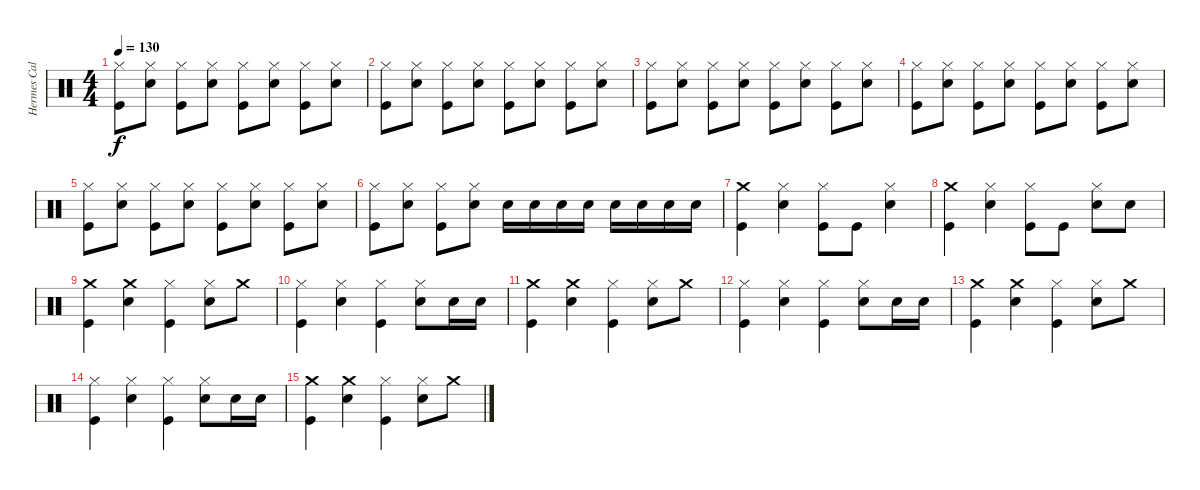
\track ("Hermes Calabria" "Hermes Cal") {instrument percussion}
\staff {score}
\articulation defaults
\ts (4 4)
\tempo 130
\clef neutral
\ks c
("Hi-Hat (closed)" "Kick (hit)").8{dy f} ("Hi-Hat (closed)" "Snare (hit) 2").8 ("Hi-Hat (closed)" "Kick (hit)").8 ("Hi-Hat (closed)" "Snare (hit) 2").8 ("Hi-Hat (closed)" "Kick (hit)").8 ("Hi-Hat (closed)" "Snare (hit) 2").8 ("Hi-Hat (closed)" "Kick (hit)").8 ("Hi-Hat (closed)" "Snare (hit) 2").8 |
("Hi-Hat (closed)" "Kick (hit)").8 ("Hi-Hat (closed)" "Snare (hit) 2").8 ("Hi-Hat (closed)" "Kick (hit)").8 ("Hi-Hat (closed)" "Snare (hit) 2").8 ("Hi-Hat (closed)" "Kick (hit)").8 ("Hi-Hat (closed)" "Snare (hit) 2").8 ("Hi-Hat (closed)" "Kick (hit)").8 ("Hi-Hat (closed)" "Snare (hit) 2").8 |
("Hi-Hat (closed)" "Kick (hit)").8 ("Hi-Hat (closed)" "Snare (hit) 2").8 ("Hi-Hat (closed)" "Kick (hit)").8 ("Hi-Hat (closed)" "Snare (hit) 2").8 ("Hi-Hat (closed)" "Kick (hit)").8 ("Hi-Hat (closed)" "Snare (hit) 2").8 ("Hi-Hat (closed)" "Kick (hit)").8 ("Hi-Hat (closed)" "Snare (hit) 2").8 |
("Hi-Hat (closed)" "Kick (hit)").8 ("Hi-Hat (closed)" "Snare (hit) 2").8 ("Hi-Hat (closed)" "Kick (hit)").8 ("Hi-Hat (closed)" "Snare (hit) 2").8 ("Hi-Hat (closed)" "Kick (hit)").8 ("Hi-Hat (closed)" "Snare (hit) 2").8 ("Hi-Hat (closed)" "Kick (hit)").8 ("Hi-Hat (closed)" "Snare (hit) 2").8 |
("Hi-Hat (closed)" "Kick (hit)").8 ("Hi-Hat (closed)" "Snare (hit) 2").8 ("Hi-Hat (closed)" "Kick (hit)").8 ("Hi-Hat (closed)" "Snare (hit) 2").8 ("Hi-Hat (closed)" "Kick (hit)").8 ("Hi-Hat (closed)" "Snare (hit) 2").8 ("Hi-Hat (closed)" "Kick (hit)").8 ("Hi-Hat (closed)" "Snare (hit) 2").8 |
("Hi-Hat (closed)" "Kick (hit)").8 ("Hi-Hat (closed)" "Snare (hit) 2").8 ("Hi-Hat (closed)" "Kick (hit)").8 ("Hi-Hat (closed)" "Snare (hit) 2").8 "Snare (hit) 2".16 "Snare (hit) 2".16 "Snare (hit) 2".16 "Snare (hit) 2".16 "Snare (hit) 2".16 "Snare (hit) 2".16 "Snare (hit) 2".16 "Snare (hit) 2".16 |
("Crash medium (hit)" "Kick (hit)").4 ("Hi-Hat (closed)" "Snare (hit) 2").4 ("Hi-Hat (closed)" "Kick (hit)").8 "Kick (hit)".8 ("Hi-Hat (closed)" "Snare (hit) 2").4 |
("Crash medium (hit)" "Kick (hit)").4 ("Hi-Hat (closed)" "Snare (hit) 2").4 ("Hi-Hat (closed)" "Kick (hit)").8 "Kick (hit)".8 ("Hi-Hat (closed)" "Snare (hit) 2").8 "Snare (hit) 2".8 |
("Crash medium (hit)" "Kick (hit)").4 ("Crash medium (hit)" "Snare (hit) 2").4 ("Hi-Hat (closed)" "Kick (hit)").4 ("Hi-Hat (closed)" "Snare (hit) 2").8 "Crash medium (hit)".8 |
("Hi-Hat (closed)" "Kick (hit)").4 ("Hi-Hat (closed)" "Snare (hit) 2").4 ("Hi-Hat (closed)" "Kick (hit)").4 ("Hi-Hat (closed)" "Snare (hit) 2").8 "Snare (hit) 2".16 "Snare (hit) 2".16 |
("Crash medium (hit)" "Kick (hit)").4 ("Crash medium (hit)" "Snare (hit) 2").4 ("Hi-Hat (closed)" "Kick (hit)").4 ("Hi-Hat (closed)" "Snare (hit) 2").8 "Crash medium (hit)".8 |
("Hi-Hat (closed)" "Kick (hit)").4 ("Hi-Hat (closed)" "Snare (hit) 2").4 ("Hi-Hat (closed)" "Kick (hit)").4 ("Hi-Hat (closed)" "Snare (hit) 2").8 "Snare (hit) 2".16 "Snare (hit) 2".16 |
("Crash medium (hit)" "Kick (hit)").4 ("Crash medium (hit)" "Snare (hit) 2").4 ("Hi-Hat (closed)" "Kick (hit)").4 ("Hi-Hat (closed)" "Snare (hit) 2").8 "Crash medium (hit)".8 |
("Hi-Hat (closed)" "Kick (hit)").4 ("Hi-Hat (closed)" "Snare (hit) 2").4 ("Hi-Hat (closed)" "Kick (hit)").4 ("Hi-Hat (closed)" "Snare (hit) 2").8 "Snare (hit) 2".16 "Snare (hit) 2".16 |
("Crash medium (hit)" "Kick (hit)").4 ("Crash medium (hit)" "Snare (hit) 2").4 ("Hi-Hat (closed)" "Kick (hit)").4 ("Hi-Hat (closed)" "Snare (hit) 2").8 "Crash medium (hit)".8
